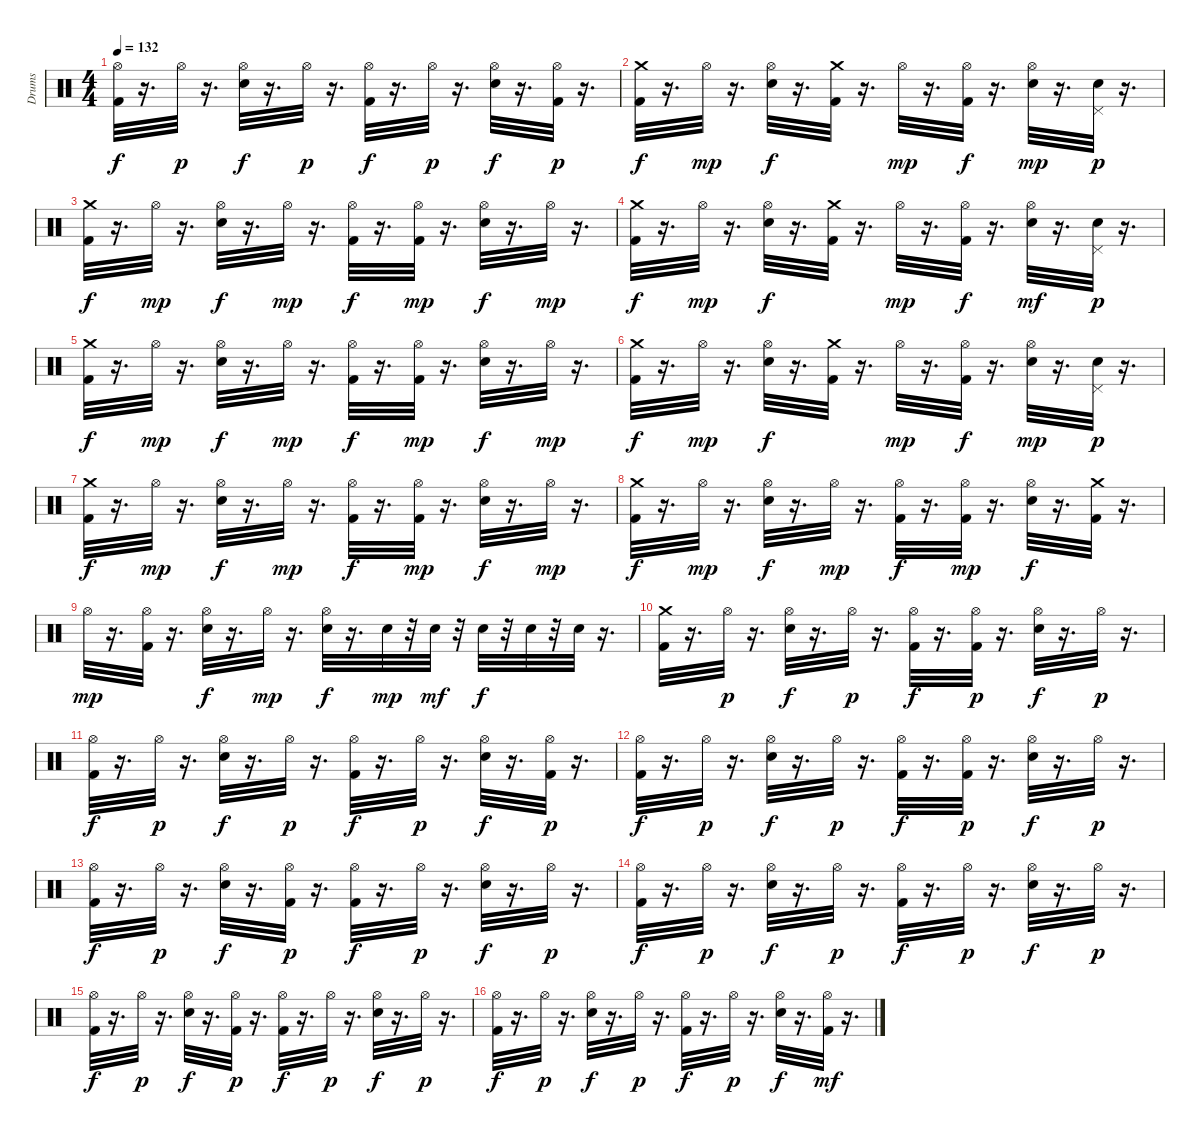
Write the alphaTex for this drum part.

\track ("Drums" "Drums") {instrument percussion}
\staff {score}
\articulation defaults
\ts (4 4)
\tempo 132
\clef neutral
\ks c
("Kick (hit) 2" "Hi-Hat (open)").32{dy f} r.16{d} "Hi-Hat (open)".32{dy p} r.16{d} ("Electric Snare (hit)" "Hi-Hat (open)").32{dy f} r.16{d} "Hi-Hat (open)".32{dy p} r.16{d} ("Hi-Hat (open)" "Kick (hit) 2").32{dy f} r.16{d} "Hi-Hat (open)".32{dy p} r.16{d} ("Hi-Hat (open)" "Electric Snare (hit)").32{dy f} r.16{d} ("Hi-Hat (open)" "Kick (hit) 2").32{dy p} r.16{d} |
("Crash medium (hit)" "Kick (hit) 2").32{dy f} r.16{d} "Hi-Hat (open)".32{dy mp} r.16{d} ("Hi-Hat (open)" "Electric Snare (hit)").32{dy f} r.16{d} ("Crash medium (hit)" "Kick (hit) 2").32 r.16{d} "Hi-Hat (open)".32{dy mp} r.16{d} ("Kick (hit) 2" "Hi-Hat (open)").32{dy f} r.16{d} ("Electric Snare (hit)" "Hi-Hat (open)").32{dy mp} r.16{d} ("Electric Snare (hit)" "Pedal Hi-Hat (hit)").32{dy p} r.16{d} |
("Crash medium (hit)" "Kick (hit) 2").32{dy f} r.16{d} "Hi-Hat (open)".32{dy mp} r.16{d} ("Hi-Hat (open)" "Electric Snare (hit)").32{dy f} r.16{d} "Hi-Hat (open)".32{dy mp} r.16{d} ("Hi-Hat (open)" "Kick (hit) 2").32{dy f} r.16{d} ("Hi-Hat (open)" "Kick (hit) 2").32{dy mp} r.16{d} ("Hi-Hat (open)" "Electric Snare (hit)").32{dy f} r.16{d} "Hi-Hat (open)".32{dy mp} r.16{d} |
("Crash medium (hit)" "Kick (hit) 2").32{dy f} r.16{d} "Hi-Hat (open)".32{dy mp} r.16{d} ("Electric Snare (hit)" "Hi-Hat (open)").32{dy f} r.16{d} ("Kick (hit) 2" "Crash medium (hit)").32 r.16{d} "Hi-Hat (open)".32{dy mp} r.16{d} ("Kick (hit) 2" "Hi-Hat (open)").32{dy f} r.16{d} ("Hi-Hat (open)" "Electric Snare (hit)").32{dy mf} r.16{d} ("Pedal Hi-Hat (hit)" "Electric Snare (hit)").32{dy p} r.16{d} |
("Kick (hit) 2" "Crash medium (hit)").32{dy f} r.16{d} "Hi-Hat (open)".32{dy mp} r.16{d} ("Hi-Hat (open)" "Electric Snare (hit)").32{dy f} r.16{d} "Hi-Hat (open)".32{dy mp} r.16{d} ("Hi-Hat (open)" "Kick (hit) 2").32{dy f} r.16{d} ("Hi-Hat (open)" "Kick (hit) 2").32{dy mp} r.16{d} ("Hi-Hat (open)" "Electric Snare (hit)").32{dy f} r.16{d} "Hi-Hat (open)".32{dy mp} r.16{d} |
("Kick (hit) 2" "Crash medium (hit)").32{dy f} r.16{d} "Hi-Hat (open)".32{dy mp} r.16{d} ("Hi-Hat (open)" "Electric Snare (hit)").32{dy f} r.16{d} ("Crash medium (hit)" "Kick (hit) 2").32 r.16{d} "Hi-Hat (open)".32{dy mp} r.16{d} ("Kick (hit) 2" "Hi-Hat (open)").32{dy f} r.16{d} ("Electric Snare (hit)" "Hi-Hat (open)").32{dy mp} r.16{d} ("Electric Snare (hit)" "Pedal Hi-Hat (hit)").32{dy p} r.16{d} |
("Crash medium (hit)" "Kick (hit) 2").32{dy f} r.16{d} "Hi-Hat (open)".32{dy mp} r.16{d} ("Hi-Hat (open)" "Electric Snare (hit)").32{dy f} r.16{d} "Hi-Hat (open)".32{dy mp} r.16{d} ("Hi-Hat (open)" "Kick (hit) 2").32{dy f} r.16{d} ("Hi-Hat (open)" "Kick (hit) 2").32{dy mp} r.16{d} ("Hi-Hat (open)" "Electric Snare (hit)").32{dy f} r.16{d} "Hi-Hat (open)".32{dy mp} r.16{d} |
("Crash medium (hit)" "Kick (hit) 2").32{dy f} r.16{d} "Hi-Hat (open)".32{dy mp} r.16{d} ("Hi-Hat (open)" "Electric Snare (hit)").32{dy f} r.16{d} "Hi-Hat (open)".32{dy mp} r.16{d} ("Hi-Hat (open)" "Kick (hit) 2").32{dy f} r.16{d} ("Hi-Hat (open)" "Kick (hit) 2").32{dy mp} r.16{d} ("Hi-Hat (open)" "Electric Snare (hit)").32{dy f} r.16{d} ("Kick (hit) 2" "Crash medium (hit)").32 r.16{d} |
"Hi-Hat (open)".32{dy mp} r.16{d} ("Hi-Hat (open)" "Kick (hit) 2").32 r.16{d} ("Hi-Hat (open)" "Electric Snare (hit)").32{dy f} r.16{d} "Hi-Hat (open)".32{dy mp} r.16{d} ("Electric Snare (hit)" "Hi-Hat (open)").32{dy f} r.16{d} "Electric Snare (hit)".32{dy mp} r.32 "Electric Snare (hit)".32{dy mf} r.32 "Electric Snare (hit)".32{dy f} r.32 "Electric Snare (hit)".32 r.32 "Electric Snare (hit)".32 r.16{d} |
("Crash medium (hit)" "Kick (hit) 2").32 r.16{d} "Hi-Hat (open)".32{dy p} r.16{d} ("Electric Snare (hit)" "Hi-Hat (open)").32{dy f} r.16{d} "Hi-Hat (open)".32{dy p} r.16{d} ("Hi-Hat (open)" "Kick (hit) 2").32{dy f} r.16{d} ("Kick (hit) 2" "Hi-Hat (open)").32{dy p} r.16{d} ("Hi-Hat (open)" "Electric Snare (hit)").32{dy f} r.16{d} "Hi-Hat (open)".32{dy p} r.16{d} |
("Hi-Hat (open)" "Kick (hit) 2").32{dy f} r.16{d} "Hi-Hat (open)".32{dy p} r.16{d} ("Electric Snare (hit)" "Hi-Hat (open)").32{dy f} r.16{d} "Hi-Hat (open)".32{dy p} r.16{d} ("Hi-Hat (open)" "Kick (hit) 2").32{dy f} r.16{d} "Hi-Hat (open)".32{dy p} r.16{d} ("Electric Snare (hit)" "Hi-Hat (open)").32{dy f} r.16{d} ("Kick (hit) 2" "Hi-Hat (open)").32{dy p} r.16{d} |
("Hi-Hat (open)" "Kick (hit) 2").32{dy f} r.16{d} "Hi-Hat (open)".32{dy p} r.16{d} ("Electric Snare (hit)" "Hi-Hat (open)").32{dy f} r.16{d} "Hi-Hat (open)".32{dy p} r.16{d} ("Hi-Hat (open)" "Kick (hit) 2").32{dy f} r.16{d} ("Hi-Hat (open)" "Kick (hit) 2").32{dy p} r.16{d} ("Electric Snare (hit)" "Hi-Hat (open)").32{dy f} r.16{d} "Hi-Hat (open)".32{dy p} r.16{d} |
("Hi-Hat (open)" "Kick (hit) 2").32{dy f} r.16{d} "Hi-Hat (open)".32{dy p} r.16{d} ("Hi-Hat (open)" "Electric Snare (hit)").32{dy f} r.16{d} ("Kick (hit) 2" "Hi-Hat (open)").32{dy p} r.16{d} ("Hi-Hat (open)" "Kick (hit) 2").32{dy f} r.16{d} "Hi-Hat (open)".32{dy p} r.16{d} ("Hi-Hat (open)" "Electric Snare (hit)").32{dy f} r.16{d} "Hi-Hat (open)".32{dy p} r.16{d} |
("Hi-Hat (open)" "Kick (hit) 2").32{dy f} r.16{d} "Hi-Hat (open)".32{dy p} r.16{d} ("Electric Snare (hit)" "Hi-Hat (open)").32{dy f} r.16{d} "Hi-Hat (open)".32{dy p} r.16{d} ("Hi-Hat (open)" "Kick (hit) 2").32{dy f} r.16{d} "Hi-Hat (open)".32{dy p} r.16{d} ("Electric Snare (hit)" "Hi-Hat (open)").32{dy f} r.16{d} "Hi-Hat (open)".32{dy p} r.16{d} |
("Kick (hit) 2" "Hi-Hat (open)").32{dy f} r.16{d} "Hi-Hat (open)".32{dy p} r.16{d} ("Hi-Hat (open)" "Electric Snare (hit)").32{dy f} r.16{d} ("Kick (hit) 2" "Hi-Hat (open)").32{dy p} r.16{d} ("Kick (hit) 2" "Hi-Hat (open)").32{dy f} r.16{d} "Hi-Hat (open)".32{dy p} r.16{d} ("Hi-Hat (open)" "Electric Snare (hit)").32{dy f} r.16{d} "Hi-Hat (open)".32{dy p} r.16{d} |
("Hi-Hat (open)" "Kick (hit) 2").32{dy f} r.16{d} "Hi-Hat (open)".32{dy p} r.16{d} ("Hi-Hat (open)" "Electric Snare (hit)").32{dy f} r.16{d} "Hi-Hat (open)".32{dy p} r.16{d} ("Hi-Hat (open)" "Kick (hit) 2").32{dy f} r.16{d} "Hi-Hat (open)".32{dy p} r.16{d} ("Electric Snare (hit)" "Hi-Hat (open)").32{dy f} r.16{d} ("Hi-Hat (open)" "Kick (hit) 2").32{dy mf} r.16{d}
